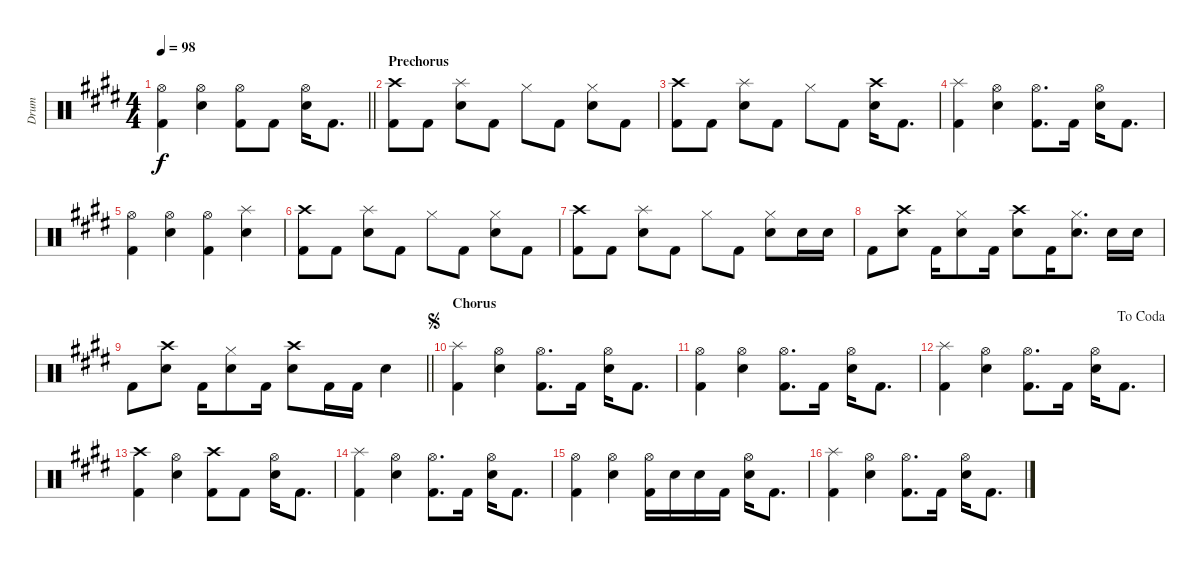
\track ("Drum" "Drum") {instrument percussion}
\staff {score}
\articulation defaults
\ts (4 4)
\tempo 98
\clef neutral
\barLineRight lightlight
\ks c#minor
("Kick (hit) 2" "Hi-Hat (open)").4{dy f} ("Snare (hit) 2" "Hi-Hat (open)").4 ("Kick (hit) 2" "Hi-Hat (open)").8 "Kick (hit) 2".8 ("Snare (hit) 2" "Hi-Hat (open)").16 "Kick (hit) 2".8{d} |
\section ("" "Prechorus")
("Kick (hit) 2" "Crash high (hit)").8 "Kick (hit) 2".8 ("Snare (hit) 2" "Splash (hit)").8 "Kick (hit) 2".8 "Hi-Hat (closed)".8 "Kick (hit) 2".8 ("Snare (hit) 2" "Hi-Hat (closed)").8 "Kick (hit) 2".8 |
("Kick (hit) 2" "Crash high (hit)").8 "Kick (hit) 2".8 ("Snare (hit) 2" "Splash (hit)").8 "Kick (hit) 2".8 "Hi-Hat (closed)".8 "Kick (hit) 2".8 ("Snare (hit) 2" "Crash high (hit)").16 "Kick (hit) 2".8{d} |
("Kick (hit) 2" "Splash (hit)").4 ("Snare (hit) 2" "Hi-Hat (open)").4 ("Kick (hit) 2" "Hi-Hat (open)").8{d} "Kick (hit) 2".16 ("Snare (hit) 2" "Hi-Hat (open)").16 "Kick (hit) 2".8{d} |
\ks e
("Kick (hit) 2" "Hi-Hat (open)").4 ("Snare (hit) 2" "Hi-Hat (open)").4 ("Kick (hit) 2" "Hi-Hat (open)").4 ("Snare (hit) 2" "Splash (hit)").4 |
\ks c#minor
("Kick (hit) 2" "Crash high (hit)").8 "Kick (hit) 2".8 ("Snare (hit) 2" "Splash (hit)").8 "Kick (hit) 2".8 "Hi-Hat (closed)".8 "Kick (hit) 2".8 ("Snare (hit) 2" "Hi-Hat (closed)").8 "Kick (hit) 2".8 |
("Kick (hit) 2" "Crash high (hit)").8 "Kick (hit) 2".8 ("Snare (hit) 2" "Splash (hit)").8 "Kick (hit) 2".8 "Hi-Hat (closed)".8 "Kick (hit) 2".8 ("Snare (hit) 2" "Hi-Hat (closed)").8 "Snare (hit) 2".16 "Snare (hit) 2".16 |
"Kick (hit) 2".8 ("Snare (hit) 2" "Crash high (hit)").8 "Kick (hit) 2".16 ("Snare (hit) 2" "Hi-Hat (closed)").8 "Kick (hit) 2".16 ("Snare (hit) 2" "Crash high (hit)").8 "Kick (hit) 2".16 ("Snare (hit) 2" "Hi-Hat (closed)").8{d} "Snare (hit) 2".16 "Snare (hit) 2".16 |
\barLineRight lightlight
\ks e "Kick (hit) 2".8
("Snare (hit) 2" "Crash high (hit)").8 "Kick (hit) 2".16 ("Snare (hit) 2" "Hi-Hat (closed)").8 "Kick (hit) 2".16 ("Snare (hit) 2" "Crash high (hit)").8 "Kick (hit) 2".16 "Kick (hit) 2".16 "Snare (hit) 2".4 |
\section ("" "Chorus")
\jump segno
\ks c#minor
("Kick (hit) 2" "Splash (hit)").4 ("Snare (hit) 2" "Hi-Hat (open)").4 ("Kick (hit) 2" "Hi-Hat (open)").8{d} "Kick (hit) 2".16 ("Snare (hit) 2" "Hi-Hat (open)").16 "Kick (hit) 2".8{d} |
("Kick (hit) 2" "Hi-Hat (open)").4 ("Snare (hit) 2" "Hi-Hat (open)").4 ("Kick (hit) 2" "Hi-Hat (open)").8{d} "Kick (hit) 2".16 ("Snare (hit) 2" "Hi-Hat (open)").16 "Kick (hit) 2".8{d} |
\jump dacoda
\ks e
("Kick (hit) 2" "Splash (hit)").4 ("Snare (hit) 2" "Hi-Hat (open)").4 ("Kick (hit) 2" "Hi-Hat (open)").8{d} "Kick (hit) 2".16 ("Snare (hit) 2" "Hi-Hat (open)").16 "Kick (hit) 2".8{d} |
\ks c#minor
("Kick (hit) 2" "Crash high (hit)").4 ("Snare (hit) 2" "Hi-Hat (open)").4 ("Kick (hit) 2" "Crash high (hit)").8 "Kick (hit) 2".8 ("Snare (hit) 2" "Hi-Hat (open)").16 "Kick (hit) 2".8{d} |
("Kick (hit) 2" "Splash (hit)").4 ("Snare (hit) 2" "Hi-Hat (open)").4 ("Kick (hit) 2" "Hi-Hat (open)").8{d} "Kick (hit) 2".16 ("Snare (hit) 2" "Hi-Hat (open)").16 "Kick (hit) 2".8{d} |
\ks e
("Kick (hit) 2" "Hi-Hat (open)").4 ("Snare (hit) 2" "Hi-Hat (open)").4 ("Kick (hit) 2" "Hi-Hat (open)").16 "Snare (hit) 2".16 "Snare (hit) 2".16 "Kick (hit) 2".16 ("Snare (hit) 2" "Hi-Hat (open)").16 "Kick (hit) 2".8{d} |
\ks c#minor
("Kick (hit) 2" "Splash (hit)").4 ("Snare (hit) 2" "Hi-Hat (open)").4 ("Kick (hit) 2" "Hi-Hat (open)").8{d} "Kick (hit) 2".16 ("Snare (hit) 2" "Hi-Hat (open)").16 "Kick (hit) 2".8{d}
